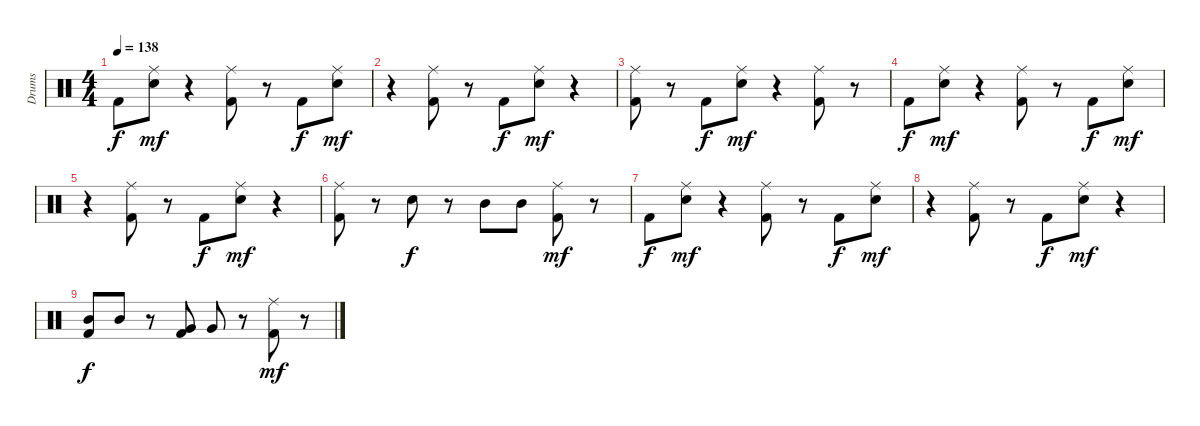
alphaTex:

\track ("Drums" "Drums") {instrument percussion}
\staff {score}
\articulation defaults
\ts (4 4)
\tempo 138
\clef neutral
\ks c "Kick (hit) 2".8{dy f}
("Ride (middle)" "Snare (hit) 2").8{dy mf} r.4 ("Ride (middle)" "Kick (hit) 2").8 r.8 "Kick (hit) 2".8{dy f} ("Ride (middle)" "Snare (hit) 2").8{dy mf} |
r.4 ("Ride (middle)" "Kick (hit) 2").8 r.8 "Kick (hit) 2".8{dy f} ("Ride (middle)" "Snare (hit) 2").8{dy mf} r.4 |
("Ride (middle)" "Kick (hit) 2").8 r.8 "Kick (hit) 2".8{dy f} ("Ride (middle)" "Snare (hit) 2").8{dy mf} r.4 ("Ride (middle)" "Kick (hit) 2").8 r.8 |
"Kick (hit) 2".8{dy f} ("Ride (middle)" "Snare (hit) 2").8{dy mf} r.4 ("Ride (middle)" "Kick (hit) 2").8 r.8 "Kick (hit) 2".8{dy f} ("Ride (middle)" "Snare (hit) 2").8{dy mf} |
r.4 ("Ride (middle)" "Kick (hit) 2").8 r.8 "Kick (hit) 2".8{dy f} ("Ride (middle)" "Snare (hit) 2").8{dy mf} r.4 |
("Ride (middle)" "Kick (hit) 2").8 r.8 "Snare (hit) 2".8{dy f} r.8 "Mid Tom (hit)".8 "Mid Tom (hit)".8 ("Ride (middle)" "Kick (hit) 2").8{dy mf} r.8 |
"Kick (hit) 2".8{dy f} ("Ride (middle)" "Snare (hit) 2").8{dy mf} r.4 ("Ride (middle)" "Kick (hit) 2").8 r.8 "Kick (hit) 2".8{dy f} ("Ride (middle)" "Snare (hit) 2").8{dy mf} |
r.4 ("Ride (middle)" "Kick (hit) 2").8 r.8 "Kick (hit) 2".8{dy f} ("Ride (middle)" "Snare (hit) 2").8{dy mf} r.4 |
("Mid Tom (hit)" "Kick (hit) 2").8{dy f} "Mid Tom (hit)".8 r.8 ("Very Low Tom (hit)" "Kick (hit) 2").8 "Very Low Tom (hit)".8 r.8 ("Ride (middle)" "Kick (hit) 2").8{dy mf} r.8
